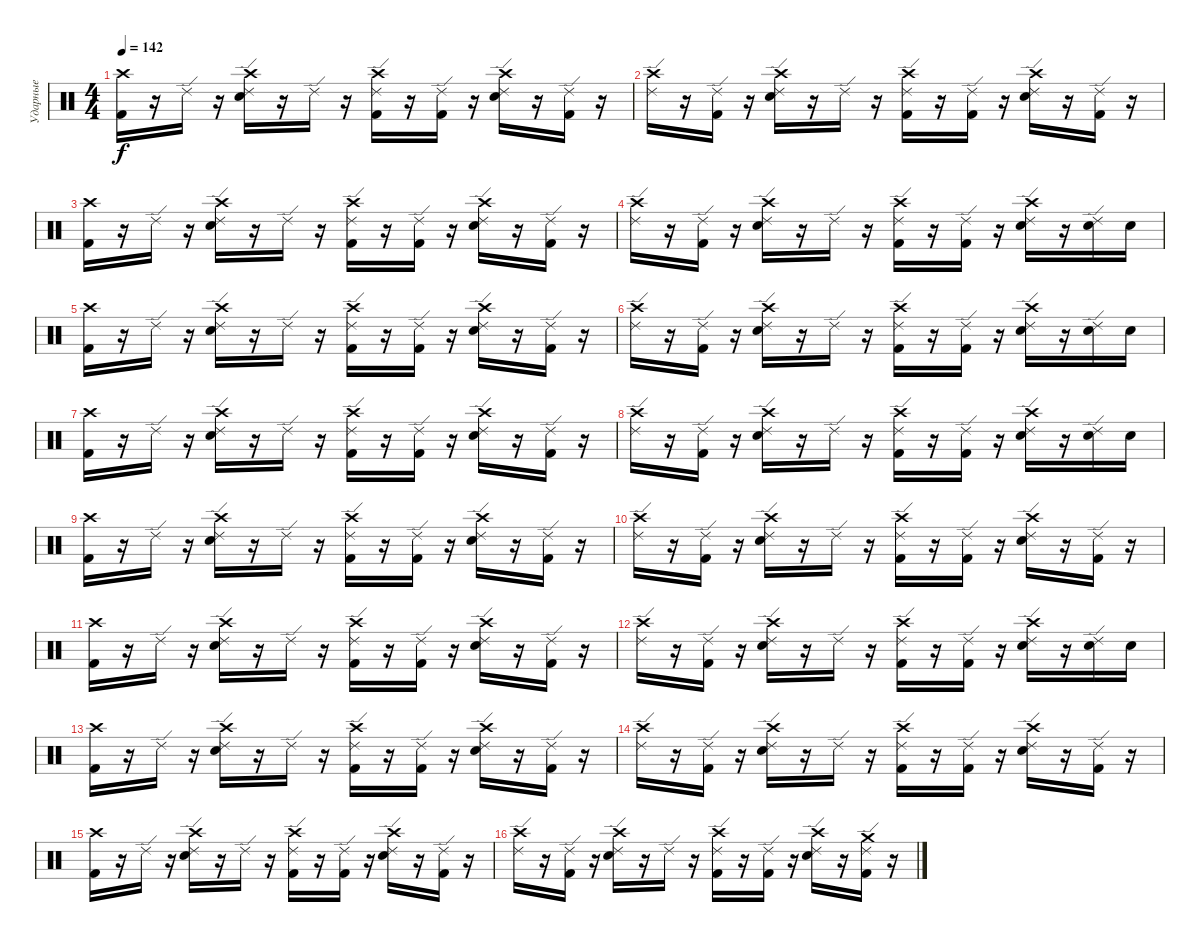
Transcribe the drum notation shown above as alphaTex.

\track ("Ударные" "Ударные") {instrument percussion}
\staff {score}
\articulation defaults
\ts (4 4)
\tempo 142
\clef neutral
\ks c
("Crash high (hit)" "Kick (hit) 2").16{dy f} r.16 "Ride (edge) 2".16 r.16 ("Crash high (hit)" "Ride (edge) 2" "Electric Snare (hit)").16 r.16 "Ride (edge) 2".16 r.16 ("Crash high (hit)" "Ride (edge) 2" "Kick (hit) 2").16 r.16 ("Ride (edge) 2" "Kick (hit) 2").16 r.16 ("Crash high (hit)" "Ride (edge) 2" "Electric Snare (hit)").16 r.16 ("Ride (edge) 2" "Kick (hit) 2").16 r.16 |
("Crash high (hit)" "Ride (edge) 2").16 r.16 ("Ride (edge) 2" "Kick (hit) 2").16 r.16 ("Crash high (hit)" "Ride (edge) 2" "Electric Snare (hit)").16 r.16 "Ride (edge) 2".16 r.16 ("Crash high (hit)" "Ride (edge) 2" "Kick (hit) 2").16 r.16 ("Ride (edge) 2" "Kick (hit) 2").16 r.16 ("Crash high (hit)" "Ride (edge) 2" "Electric Snare (hit)").16 r.16 ("Ride (edge) 2" "Kick (hit) 2").16 r.16 |
("Crash high (hit)" "Kick (hit) 2").16 r.16 "Ride (edge) 2".16 r.16 ("Crash high (hit)" "Ride (edge) 2" "Electric Snare (hit)").16 r.16 "Ride (edge) 2".16 r.16 ("Crash high (hit)" "Ride (edge) 2" "Kick (hit) 2").16 r.16 ("Ride (edge) 2" "Kick (hit) 2").16 r.16 ("Crash high (hit)" "Ride (edge) 2" "Electric Snare (hit)").16 r.16 ("Ride (edge) 2" "Kick (hit) 2").16 r.16 |
("Crash high (hit)" "Ride (edge) 2").16 r.16 ("Ride (edge) 2" "Kick (hit) 2").16 r.16 ("Crash high (hit)" "Ride (edge) 2" "Electric Snare (hit)").16 r.16 "Ride (edge) 2".16 r.16 ("Crash high (hit)" "Ride (edge) 2" "Kick (hit) 2").16 r.16 ("Ride (edge) 2" "Kick (hit) 2").16 r.16 ("Crash high (hit)" "Ride (edge) 2" "Electric Snare (hit)").16 r.16 ("Ride (edge) 2" "Electric Snare (hit)").16 "Electric Snare (hit)".16 |
("Crash high (hit)" "Kick (hit) 2").16 r.16 "Ride (edge) 2".16 r.16 ("Crash high (hit)" "Ride (edge) 2" "Electric Snare (hit)").16 r.16 "Ride (edge) 2".16 r.16 ("Crash high (hit)" "Ride (edge) 2" "Kick (hit) 2").16 r.16 ("Ride (edge) 2" "Kick (hit) 2").16 r.16 ("Crash high (hit)" "Ride (edge) 2" "Electric Snare (hit)").16 r.16 ("Ride (edge) 2" "Kick (hit) 2").16 r.16 |
("Crash high (hit)" "Ride (edge) 2").16 r.16 ("Ride (edge) 2" "Kick (hit) 2").16 r.16 ("Crash high (hit)" "Ride (edge) 2" "Electric Snare (hit)").16 r.16 "Ride (edge) 2".16 r.16 ("Crash high (hit)" "Ride (edge) 2" "Kick (hit) 2").16 r.16 ("Ride (edge) 2" "Kick (hit) 2").16 r.16 ("Crash high (hit)" "Ride (edge) 2" "Electric Snare (hit)").16 r.16 ("Ride (edge) 2" "Electric Snare (hit)").16 "Electric Snare (hit)".16 |
("Crash high (hit)" "Kick (hit) 2").16 r.16 "Ride (edge) 2".16 r.16 ("Crash high (hit)" "Ride (edge) 2" "Electric Snare (hit)").16 r.16 "Ride (edge) 2".16 r.16 ("Crash high (hit)" "Ride (edge) 2" "Kick (hit) 2").16 r.16 ("Ride (edge) 2" "Kick (hit) 2").16 r.16 ("Crash high (hit)" "Ride (edge) 2" "Electric Snare (hit)").16 r.16 ("Ride (edge) 2" "Kick (hit) 2").16 r.16 |
("Crash high (hit)" "Ride (edge) 2").16 r.16 ("Ride (edge) 2" "Kick (hit) 2").16 r.16 ("Crash high (hit)" "Ride (edge) 2" "Electric Snare (hit)").16 r.16 "Ride (edge) 2".16 r.16 ("Crash high (hit)" "Ride (edge) 2" "Kick (hit) 2").16 r.16 ("Ride (edge) 2" "Kick (hit) 2").16 r.16 ("Crash high (hit)" "Ride (edge) 2" "Electric Snare (hit)").16 r.16 ("Ride (edge) 2" "Electric Snare (hit)").16 "Electric Snare (hit)".16 |
("Crash high (hit)" "Kick (hit) 2").16 r.16 "Ride (edge) 2".16 r.16 ("Crash high (hit)" "Ride (edge) 2" "Electric Snare (hit)").16 r.16 "Ride (edge) 2".16 r.16 ("Crash high (hit)" "Ride (edge) 2" "Kick (hit) 2").16 r.16 ("Ride (edge) 2" "Kick (hit) 2").16 r.16 ("Crash high (hit)" "Ride (edge) 2" "Electric Snare (hit)").16 r.16 ("Ride (edge) 2" "Kick (hit) 2").16 r.16 |
("Crash high (hit)" "Ride (edge) 2").16 r.16 ("Ride (edge) 2" "Kick (hit) 2").16 r.16 ("Crash high (hit)" "Ride (edge) 2" "Electric Snare (hit)").16 r.16 "Ride (edge) 2".16 r.16 ("Crash high (hit)" "Ride (edge) 2" "Kick (hit) 2").16 r.16 ("Ride (edge) 2" "Kick (hit) 2").16 r.16 ("Crash high (hit)" "Ride (edge) 2" "Electric Snare (hit)").16 r.16 ("Ride (edge) 2" "Kick (hit) 2").16 r.16 |
("Crash high (hit)" "Kick (hit) 2").16 r.16 "Ride (edge) 2".16 r.16 ("Crash high (hit)" "Ride (edge) 2" "Electric Snare (hit)").16 r.16 "Ride (edge) 2".16 r.16 ("Crash high (hit)" "Ride (edge) 2" "Kick (hit) 2").16 r.16 ("Ride (edge) 2" "Kick (hit) 2").16 r.16 ("Crash high (hit)" "Ride (edge) 2" "Electric Snare (hit)").16 r.16 ("Ride (edge) 2" "Kick (hit) 2").16 r.16 |
("Crash high (hit)" "Ride (edge) 2").16 r.16 ("Ride (edge) 2" "Kick (hit) 2").16 r.16 ("Crash high (hit)" "Ride (edge) 2" "Electric Snare (hit)").16 r.16 "Ride (edge) 2".16 r.16 ("Crash high (hit)" "Ride (edge) 2" "Kick (hit) 2").16 r.16 ("Ride (edge) 2" "Kick (hit) 2").16 r.16 ("Crash high (hit)" "Ride (edge) 2" "Electric Snare (hit)").16 r.16 ("Ride (edge) 2" "Electric Snare (hit)").16 "Electric Snare (hit)".16 |
("Crash high (hit)" "Kick (hit) 2").16 r.16 "Ride (edge) 2".16 r.16 ("Crash high (hit)" "Ride (edge) 2" "Electric Snare (hit)").16 r.16 "Ride (edge) 2".16 r.16 ("Crash high (hit)" "Ride (edge) 2" "Kick (hit) 2").16 r.16 ("Ride (edge) 2" "Kick (hit) 2").16 r.16 ("Crash high (hit)" "Ride (edge) 2" "Electric Snare (hit)").16 r.16 ("Ride (edge) 2" "Kick (hit) 2").16 r.16 |
("Crash high (hit)" "Ride (edge) 2").16 r.16 ("Ride (edge) 2" "Kick (hit) 2").16 r.16 ("Crash high (hit)" "Ride (edge) 2" "Electric Snare (hit)").16 r.16 "Ride (edge) 2".16 r.16 ("Crash high (hit)" "Ride (edge) 2" "Kick (hit) 2").16 r.16 ("Ride (edge) 2" "Kick (hit) 2").16 r.16 ("Crash high (hit)" "Ride (edge) 2" "Electric Snare (hit)").16 r.16 ("Ride (edge) 2" "Kick (hit) 2").16 r.16 |
("Crash high (hit)" "Kick (hit) 2").16 r.16 "Ride (edge) 2".16 r.16 ("Crash high (hit)" "Ride (edge) 2" "Electric Snare (hit)").16 r.16 "Ride (edge) 2".16 r.16 ("Crash high (hit)" "Ride (edge) 2" "Kick (hit) 2").16 r.16 ("Ride (edge) 2" "Kick (hit) 2").16 r.16 ("Crash high (hit)" "Ride (edge) 2" "Electric Snare (hit)").16 r.16 ("Ride (edge) 2" "Kick (hit) 2").16 r.16 |
("Crash high (hit)" "Ride (edge) 2").16 r.16 ("Ride (edge) 2" "Kick (hit) 2").16 r.16 ("Crash high (hit)" "Ride (edge) 2" "Electric Snare (hit)").16 r.16 "Ride (edge) 2".16 r.16 ("Crash high (hit)" "Ride (edge) 2" "Kick (hit) 2").16 r.16 ("Ride (edge) 2" "Kick (hit) 2").16 r.16 ("Crash high (hit)" "Ride (edge) 2" "Electric Snare (hit)").16 r.16 ("Crash medium (hit)" "Ride (edge) 2" "Kick (hit) 2").16 r.16
